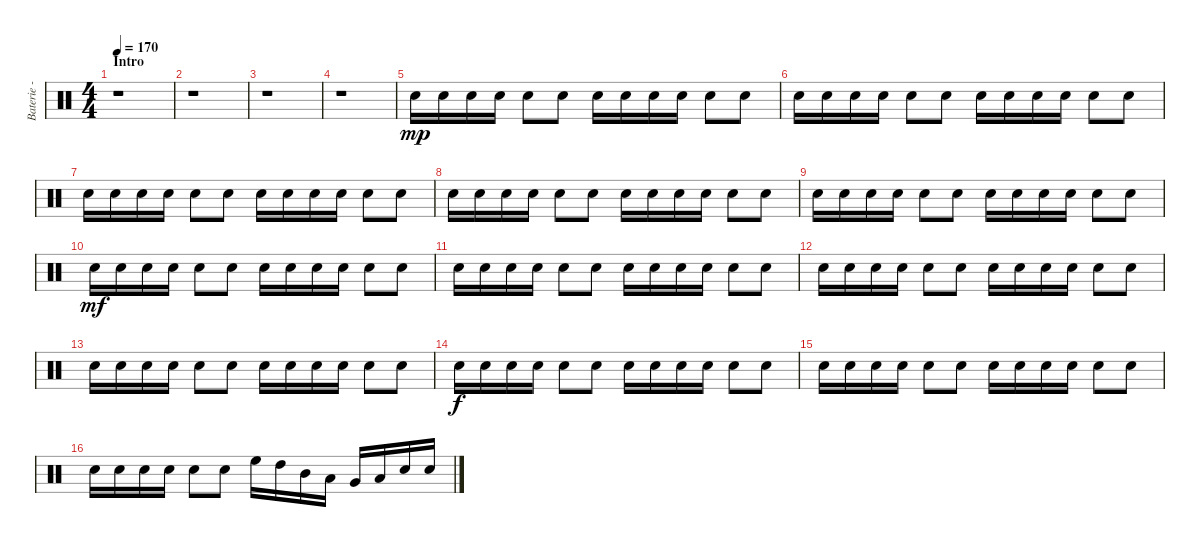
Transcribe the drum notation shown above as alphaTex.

\track ("Baterie - Alex" "Baterie - ") {instrument percussion}
\staff {score}
\articulation defaults
\ts (4 4)
\section ("" "Intro")
\tempo 170
\tempo 140
\tempo 170
\clef neutral
\ks c
r.1{dy mp} |
r.1 |
r.1 |
r.1 |
"Electric Snare (hit)".16 "Electric Snare (hit)".16 "Electric Snare (hit)".16 "Electric Snare (hit)".16 "Electric Snare (hit)".8 "Electric Snare (hit)".8 "Electric Snare (hit)".16 "Electric Snare (hit)".16 "Electric Snare (hit)".16 "Electric Snare (hit)".16 "Electric Snare (hit)".8 "Electric Snare (hit)".8 |
"Electric Snare (hit)".16 "Electric Snare (hit)".16 "Electric Snare (hit)".16 "Electric Snare (hit)".16 "Electric Snare (hit)".8 "Electric Snare (hit)".8 "Electric Snare (hit)".16 "Electric Snare (hit)".16 "Electric Snare (hit)".16 "Electric Snare (hit)".16 "Electric Snare (hit)".8 "Electric Snare (hit)".8 |
"Electric Snare (hit)".16 "Electric Snare (hit)".16 "Electric Snare (hit)".16 "Electric Snare (hit)".16 "Electric Snare (hit)".8 "Electric Snare (hit)".8 "Electric Snare (hit)".16 "Electric Snare (hit)".16 "Electric Snare (hit)".16 "Electric Snare (hit)".16 "Electric Snare (hit)".8 "Electric Snare (hit)".8 |
"Electric Snare (hit)".16 "Electric Snare (hit)".16 "Electric Snare (hit)".16 "Electric Snare (hit)".16 "Electric Snare (hit)".8 "Electric Snare (hit)".8 "Electric Snare (hit)".16 "Electric Snare (hit)".16 "Electric Snare (hit)".16 "Electric Snare (hit)".16 "Electric Snare (hit)".8 "Electric Snare (hit)".8 |
"Electric Snare (hit)".16 "Electric Snare (hit)".16 "Electric Snare (hit)".16 "Electric Snare (hit)".16 "Electric Snare (hit)".8 "Electric Snare (hit)".8 "Electric Snare (hit)".16 "Electric Snare (hit)".16 "Electric Snare (hit)".16 "Electric Snare (hit)".16 "Electric Snare (hit)".8 "Electric Snare (hit)".8 |
"Electric Snare (hit)".16{dy mf} "Electric Snare (hit)".16 "Electric Snare (hit)".16 "Electric Snare (hit)".16 "Electric Snare (hit)".8 "Electric Snare (hit)".8 "Electric Snare (hit)".16 "Electric Snare (hit)".16 "Electric Snare (hit)".16 "Electric Snare (hit)".16 "Electric Snare (hit)".8 "Electric Snare (hit)".8 |
"Electric Snare (hit)".16 "Electric Snare (hit)".16 "Electric Snare (hit)".16 "Electric Snare (hit)".16 "Electric Snare (hit)".8 "Electric Snare (hit)".8 "Electric Snare (hit)".16 "Electric Snare (hit)".16 "Electric Snare (hit)".16 "Electric Snare (hit)".16 "Electric Snare (hit)".8 "Electric Snare (hit)".8 |
"Electric Snare (hit)".16 "Electric Snare (hit)".16 "Electric Snare (hit)".16 "Electric Snare (hit)".16 "Electric Snare (hit)".8 "Electric Snare (hit)".8 "Electric Snare (hit)".16 "Electric Snare (hit)".16 "Electric Snare (hit)".16 "Electric Snare (hit)".16 "Electric Snare (hit)".8 "Electric Snare (hit)".8 |
"Electric Snare (hit)".16 "Electric Snare (hit)".16 "Electric Snare (hit)".16 "Electric Snare (hit)".16 "Electric Snare (hit)".8 "Electric Snare (hit)".8 "Electric Snare (hit)".16 "Electric Snare (hit)".16 "Electric Snare (hit)".16 "Electric Snare (hit)".16 "Electric Snare (hit)".8 "Electric Snare (hit)".8 |
"Electric Snare (hit)".16{dy f} "Electric Snare (hit)".16 "Electric Snare (hit)".16 "Electric Snare (hit)".16 "Electric Snare (hit)".8 "Electric Snare (hit)".8 "Electric Snare (hit)".16 "Electric Snare (hit)".16 "Electric Snare (hit)".16 "Electric Snare (hit)".16 "Electric Snare (hit)".8 "Electric Snare (hit)".8 |
"Electric Snare (hit)".16 "Electric Snare (hit)".16 "Electric Snare (hit)".16 "Electric Snare (hit)".16 "Electric Snare (hit)".8 "Electric Snare (hit)".8 "Electric Snare (hit)".16 "Electric Snare (hit)".16 "Electric Snare (hit)".16 "Electric Snare (hit)".16 "Electric Snare (hit)".8 "Electric Snare (hit)".8 |
"Electric Snare (hit)".16 "Electric Snare (hit)".16 "Electric Snare (hit)".16 "Electric Snare (hit)".16 "Electric Snare (hit)".8 "Electric Snare (hit)".8 "High Floor Tom (hit)".16 "High Tom (hit)".16 "Mid Tom (hit)".16 "Low Tom (hit)".16 "Very Low Tom (hit)".16 "Low Floor Tom (hit)".16 "Electric Snare (hit)".16 "Electric Snare (hit)".16
